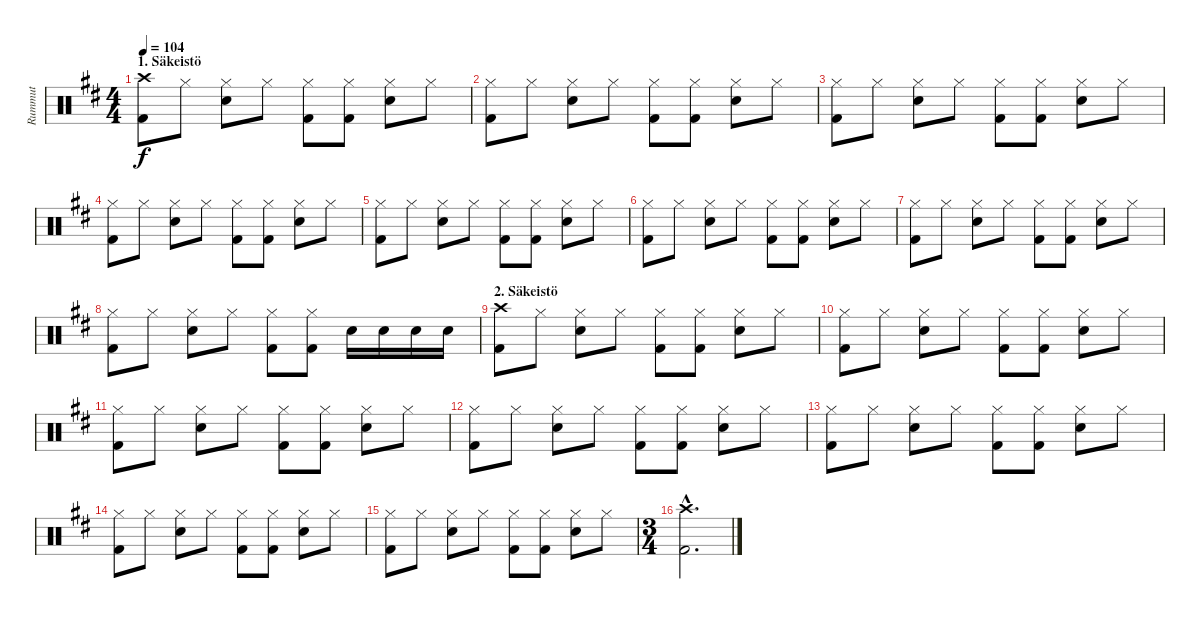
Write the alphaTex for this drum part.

\track ("Rummut" "Rummut") {instrument percussion}
\staff {score}
\articulation defaults
\ts (4 4)
\section ("" "1. Säkeistö")
\tempo 104
\clef neutral
\ks d
("Crash high (hit)" "Kick (hit) 2").8{dy f} "Hi-Hat (closed)".8 ("Hi-Hat (closed)" "Snare (hit) 2").8 "Hi-Hat (closed)".8 ("Hi-Hat (closed)" "Kick (hit) 2").8 ("Hi-Hat (closed)" "Kick (hit) 2").8 ("Hi-Hat (closed)" "Snare (hit) 2").8 "Hi-Hat (closed)".8 |
("Hi-Hat (closed)" "Kick (hit) 2").8 "Hi-Hat (closed)".8 ("Hi-Hat (closed)" "Snare (hit) 2").8 "Hi-Hat (closed)".8 ("Hi-Hat (closed)" "Kick (hit) 2").8 ("Hi-Hat (closed)" "Kick (hit) 2").8 ("Hi-Hat (closed)" "Snare (hit) 2").8 "Hi-Hat (closed)".8 |
("Hi-Hat (closed)" "Kick (hit) 2").8 "Hi-Hat (closed)".8 ("Hi-Hat (closed)" "Snare (hit) 2").8 "Hi-Hat (closed)".8 ("Hi-Hat (closed)" "Kick (hit) 2").8 ("Hi-Hat (closed)" "Kick (hit) 2").8 ("Hi-Hat (closed)" "Snare (hit) 2").8 "Hi-Hat (closed)".8 |
("Hi-Hat (closed)" "Kick (hit) 2").8 "Hi-Hat (closed)".8 ("Hi-Hat (closed)" "Snare (hit) 2").8 "Hi-Hat (closed)".8 ("Hi-Hat (closed)" "Kick (hit) 2").8 ("Hi-Hat (closed)" "Kick (hit) 2").8 ("Hi-Hat (closed)" "Snare (hit) 2").8 "Hi-Hat (closed)".8 |
("Hi-Hat (closed)" "Kick (hit) 2").8 "Hi-Hat (closed)".8 ("Hi-Hat (closed)" "Snare (hit) 2").8 "Hi-Hat (closed)".8 ("Hi-Hat (closed)" "Kick (hit) 2").8 ("Hi-Hat (closed)" "Kick (hit) 2").8 ("Hi-Hat (closed)" "Snare (hit) 2").8 "Hi-Hat (closed)".8 |
("Hi-Hat (closed)" "Kick (hit) 2").8 "Hi-Hat (closed)".8 ("Hi-Hat (closed)" "Snare (hit) 2").8 "Hi-Hat (closed)".8 ("Hi-Hat (closed)" "Kick (hit) 2").8 ("Hi-Hat (closed)" "Kick (hit) 2").8 ("Hi-Hat (closed)" "Snare (hit) 2").8 "Hi-Hat (closed)".8 |
("Hi-Hat (closed)" "Kick (hit) 2").8 "Hi-Hat (closed)".8 ("Hi-Hat (closed)" "Snare (hit) 2").8 "Hi-Hat (closed)".8 ("Hi-Hat (closed)" "Kick (hit) 2").8 ("Hi-Hat (closed)" "Kick (hit) 2").8 ("Hi-Hat (closed)" "Snare (hit) 2").8 "Hi-Hat (closed)".8 |
("Hi-Hat (closed)" "Kick (hit) 2").8 "Hi-Hat (closed)".8 ("Hi-Hat (closed)" "Snare (hit) 2").8 "Hi-Hat (closed)".8 ("Hi-Hat (closed)" "Kick (hit) 2").8 ("Hi-Hat (closed)" "Kick (hit) 2").8 "Snare (hit) 2".16 "Snare (hit) 2".16 "Snare (hit) 2".16 "Snare (hit) 2".16 |
\section ("" "2. Säkeistö")
("Crash high (hit)" "Kick (hit) 2").8 "Hi-Hat (closed)".8 ("Hi-Hat (closed)" "Snare (hit) 2").8 "Hi-Hat (closed)".8 ("Hi-Hat (closed)" "Kick (hit) 2").8 ("Hi-Hat (closed)" "Kick (hit) 2").8 ("Hi-Hat (closed)" "Snare (hit) 2").8 "Hi-Hat (closed)".8 |
("Hi-Hat (closed)" "Kick (hit) 2").8 "Hi-Hat (closed)".8 ("Hi-Hat (closed)" "Snare (hit) 2").8 "Hi-Hat (closed)".8 ("Hi-Hat (closed)" "Kick (hit) 2").8 ("Hi-Hat (closed)" "Kick (hit) 2").8 ("Hi-Hat (closed)" "Snare (hit) 2").8 "Hi-Hat (closed)".8 |
("Hi-Hat (closed)" "Kick (hit) 2").8 "Hi-Hat (closed)".8 ("Hi-Hat (closed)" "Snare (hit) 2").8 "Hi-Hat (closed)".8 ("Hi-Hat (closed)" "Kick (hit) 2").8 ("Hi-Hat (closed)" "Kick (hit) 2").8 ("Hi-Hat (closed)" "Snare (hit) 2").8 "Hi-Hat (closed)".8 |
("Hi-Hat (closed)" "Kick (hit) 2").8 "Hi-Hat (closed)".8 ("Hi-Hat (closed)" "Snare (hit) 2").8 "Hi-Hat (closed)".8 ("Hi-Hat (closed)" "Kick (hit) 2").8 ("Hi-Hat (closed)" "Kick (hit) 2").8 ("Hi-Hat (closed)" "Snare (hit) 2").8 "Hi-Hat (closed)".8 |
("Hi-Hat (closed)" "Kick (hit) 2").8 "Hi-Hat (closed)".8 ("Hi-Hat (closed)" "Snare (hit) 2").8 "Hi-Hat (closed)".8 ("Hi-Hat (closed)" "Kick (hit) 2").8 ("Hi-Hat (closed)" "Kick (hit) 2").8 ("Hi-Hat (closed)" "Snare (hit) 2").8 "Hi-Hat (closed)".8 |
("Hi-Hat (closed)" "Kick (hit) 2").8 "Hi-Hat (closed)".8 ("Hi-Hat (closed)" "Snare (hit) 2").8 "Hi-Hat (closed)".8 ("Hi-Hat (closed)" "Kick (hit) 2").8 ("Hi-Hat (closed)" "Kick (hit) 2").8 ("Hi-Hat (closed)" "Snare (hit) 2").8 "Hi-Hat (closed)".8 |
("Hi-Hat (closed)" "Kick (hit) 2").8 "Hi-Hat (closed)".8 ("Hi-Hat (closed)" "Snare (hit) 2").8 "Hi-Hat (closed)".8 ("Hi-Hat (closed)" "Kick (hit) 2").8 ("Hi-Hat (closed)" "Kick (hit) 2").8 ("Hi-Hat (closed)" "Snare (hit) 2").8 "Hi-Hat (closed)".8 |
\ts (3 4)
("Crash high (hit)"{hac} "Kick (hit) 2"{hac}).2{d}
